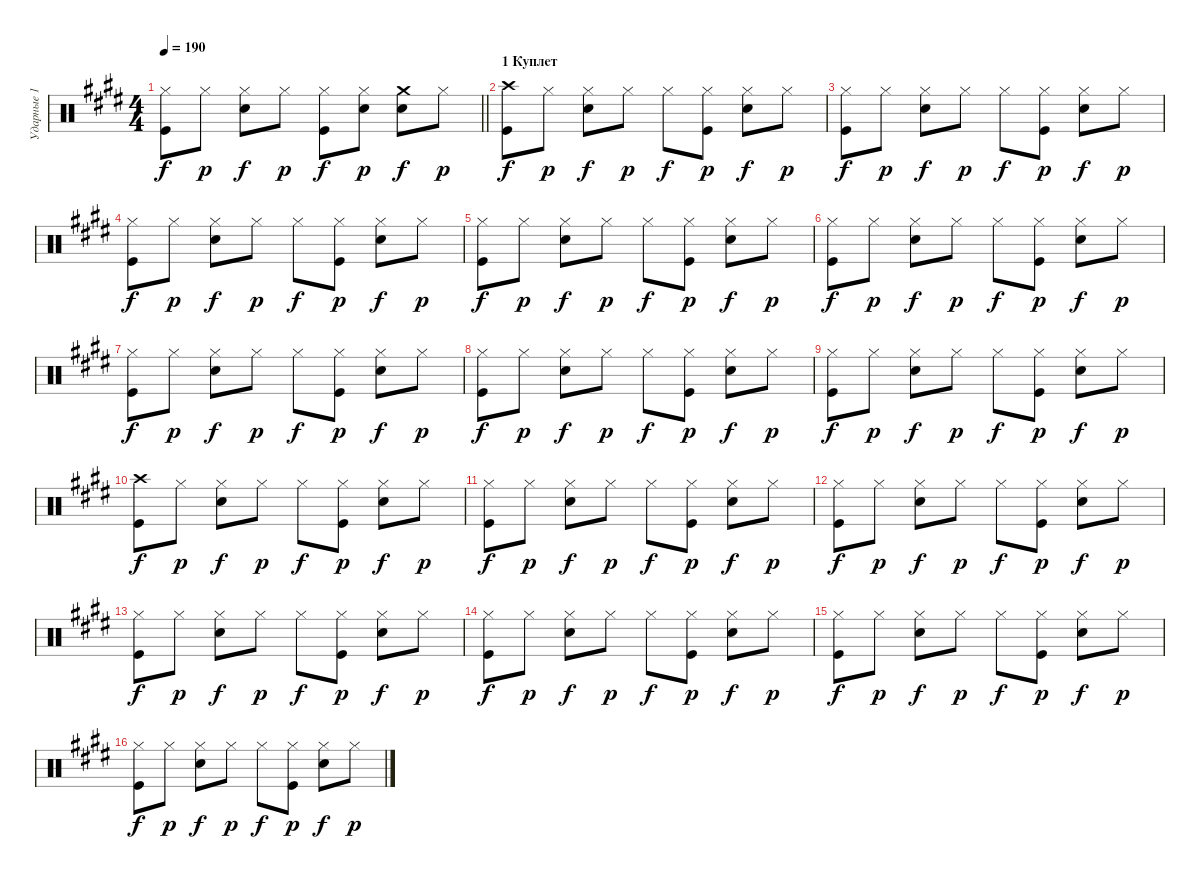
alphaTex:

\track ("Ударные 1" "Ударные 1") {instrument percussion}
\staff {score}
\articulation defaults
\ts (4 4)
\tempo 190
\clef neutral
\barLineRight lightlight
\ks c#minor
("Hi-Hat (closed)" "Kick (hit)").8{dy f} "Hi-Hat (closed)".8{dy p} ("Hi-Hat (closed)" "Snare (hit) 2").8{dy f} "Hi-Hat (closed)".8{dy p} ("Hi-Hat (closed)" "Kick (hit)").8{dy f} ("Hi-Hat (closed)" "Snare (hit) 2").8{dy p} ("Crash medium (hit)" "Snare (hit) 2").8{dy f} "Hi-Hat (closed)".8{dy p} |
\section ("" "1 Куплет")
("Crash high (hit)" "Kick (hit)").8{dy f} "Hi-Hat (closed)".8{dy p} ("Hi-Hat (closed)" "Snare (hit) 2").8{dy f} "Hi-Hat (closed)".8{dy p} "Hi-Hat (closed)".8{dy f} ("Hi-Hat (closed)" "Kick (hit)").8{dy p} ("Hi-Hat (closed)" "Snare (hit) 2").8{dy f} "Hi-Hat (closed)".8{dy p} |
("Hi-Hat (closed)" "Kick (hit)").8{dy f} "Hi-Hat (closed)".8{dy p} ("Hi-Hat (closed)" "Snare (hit) 2").8{dy f} "Hi-Hat (closed)".8{dy p} "Hi-Hat (closed)".8{dy f} ("Hi-Hat (closed)" "Kick (hit)").8{dy p} ("Hi-Hat (closed)" "Snare (hit) 2").8{dy f} "Hi-Hat (closed)".8{dy p} |
("Hi-Hat (closed)" "Kick (hit)").8{dy f} "Hi-Hat (closed)".8{dy p} ("Hi-Hat (closed)" "Snare (hit) 2").8{dy f} "Hi-Hat (closed)".8{dy p} "Hi-Hat (closed)".8{dy f} ("Hi-Hat (closed)" "Kick (hit)").8{dy p} ("Hi-Hat (closed)" "Snare (hit) 2").8{dy f} "Hi-Hat (closed)".8{dy p} |
("Hi-Hat (closed)" "Kick (hit)").8{dy f} "Hi-Hat (closed)".8{dy p} ("Hi-Hat (closed)" "Snare (hit) 2").8{dy f} "Hi-Hat (closed)".8{dy p} "Hi-Hat (closed)".8{dy f} ("Hi-Hat (closed)" "Kick (hit)").8{dy p} ("Hi-Hat (closed)" "Snare (hit) 2").8{dy f} "Hi-Hat (closed)".8{dy p} |
("Hi-Hat (closed)" "Kick (hit)").8{dy f} "Hi-Hat (closed)".8{dy p} ("Hi-Hat (closed)" "Snare (hit) 2").8{dy f} "Hi-Hat (closed)".8{dy p} "Hi-Hat (closed)".8{dy f} ("Hi-Hat (closed)" "Kick (hit)").8{dy p} ("Hi-Hat (closed)" "Snare (hit) 2").8{dy f} "Hi-Hat (closed)".8{dy p} |
("Hi-Hat (closed)" "Kick (hit)").8{dy f} "Hi-Hat (closed)".8{dy p} ("Hi-Hat (closed)" "Snare (hit) 2").8{dy f} "Hi-Hat (closed)".8{dy p} "Hi-Hat (closed)".8{dy f} ("Hi-Hat (closed)" "Kick (hit)").8{dy p} ("Hi-Hat (closed)" "Snare (hit) 2").8{dy f} "Hi-Hat (closed)".8{dy p} |
("Hi-Hat (closed)" "Kick (hit)").8{dy f} "Hi-Hat (closed)".8{dy p} ("Hi-Hat (closed)" "Snare (hit) 2").8{dy f} "Hi-Hat (closed)".8{dy p} "Hi-Hat (closed)".8{dy f} ("Hi-Hat (closed)" "Kick (hit)").8{dy p} ("Hi-Hat (closed)" "Snare (hit) 2").8{dy f} "Hi-Hat (closed)".8{dy p} |
("Hi-Hat (closed)" "Kick (hit)").8{dy f} "Hi-Hat (closed)".8{dy p} ("Hi-Hat (closed)" "Snare (hit) 2").8{dy f} "Hi-Hat (closed)".8{dy p} "Hi-Hat (closed)".8{dy f} ("Hi-Hat (closed)" "Kick (hit)").8{dy p} ("Hi-Hat (closed)" "Snare (hit) 2").8{dy f} "Hi-Hat (closed)".8{dy p} |
("Crash high (hit)" "Kick (hit)").8{dy f} "Hi-Hat (closed)".8{dy p} ("Hi-Hat (closed)" "Snare (hit) 2").8{dy f} "Hi-Hat (closed)".8{dy p} "Hi-Hat (closed)".8{dy f} ("Hi-Hat (closed)" "Kick (hit)").8{dy p} ("Hi-Hat (closed)" "Snare (hit) 2").8{dy f} "Hi-Hat (closed)".8{dy p} |
("Hi-Hat (closed)" "Kick (hit)").8{dy f} "Hi-Hat (closed)".8{dy p} ("Hi-Hat (closed)" "Snare (hit) 2").8{dy f} "Hi-Hat (closed)".8{dy p} "Hi-Hat (closed)".8{dy f} ("Hi-Hat (closed)" "Kick (hit)").8{dy p} ("Hi-Hat (closed)" "Snare (hit) 2").8{dy f} "Hi-Hat (closed)".8{dy p} |
("Hi-Hat (closed)" "Kick (hit)").8{dy f} "Hi-Hat (closed)".8{dy p} ("Hi-Hat (closed)" "Snare (hit) 2").8{dy f} "Hi-Hat (closed)".8{dy p} "Hi-Hat (closed)".8{dy f} ("Hi-Hat (closed)" "Kick (hit)").8{dy p} ("Hi-Hat (closed)" "Snare (hit) 2").8{dy f} "Hi-Hat (closed)".8{dy p} |
("Hi-Hat (closed)" "Kick (hit)").8{dy f} "Hi-Hat (closed)".8{dy p} ("Hi-Hat (closed)" "Snare (hit) 2").8{dy f} "Hi-Hat (closed)".8{dy p} "Hi-Hat (closed)".8{dy f} ("Hi-Hat (closed)" "Kick (hit)").8{dy p} ("Hi-Hat (closed)" "Snare (hit) 2").8{dy f} "Hi-Hat (closed)".8{dy p} |
("Hi-Hat (closed)" "Kick (hit)").8{dy f} "Hi-Hat (closed)".8{dy p} ("Hi-Hat (closed)" "Snare (hit) 2").8{dy f} "Hi-Hat (closed)".8{dy p} "Hi-Hat (closed)".8{dy f} ("Hi-Hat (closed)" "Kick (hit)").8{dy p} ("Hi-Hat (closed)" "Snare (hit) 2").8{dy f} "Hi-Hat (closed)".8{dy p} |
("Hi-Hat (closed)" "Kick (hit)").8{dy f} "Hi-Hat (closed)".8{dy p} ("Hi-Hat (closed)" "Snare (hit) 2").8{dy f} "Hi-Hat (closed)".8{dy p} "Hi-Hat (closed)".8{dy f} ("Hi-Hat (closed)" "Kick (hit)").8{dy p} ("Hi-Hat (closed)" "Snare (hit) 2").8{dy f} "Hi-Hat (closed)".8{dy p} |
("Hi-Hat (closed)" "Kick (hit)").8{dy f} "Hi-Hat (closed)".8{dy p} ("Hi-Hat (closed)" "Snare (hit) 2").8{dy f} "Hi-Hat (closed)".8{dy p} "Hi-Hat (closed)".8{dy f} ("Hi-Hat (closed)" "Kick (hit)").8{dy p} ("Hi-Hat (closed)" "Snare (hit) 2").8{dy f} "Hi-Hat (closed)".8{dy p}
